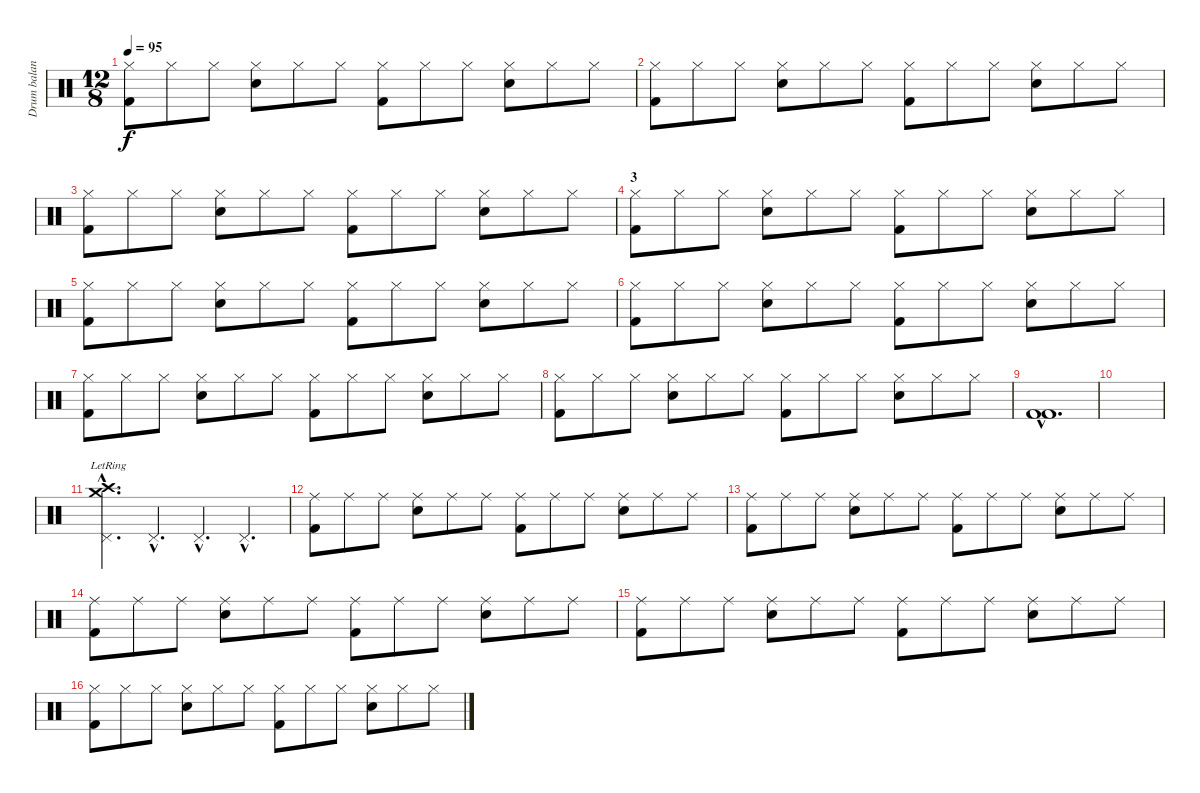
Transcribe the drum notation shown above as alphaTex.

\track ("Drum balance help" "Drum balan") {instrument percussion}
\staff {score}
\articulation defaults
\ts (12 8)
\tempo 95
\clef neutral
\ks c
("Kick (hit) 2" "Hi-Hat (closed)").8{dy f} "Hi-Hat (closed)".8 "Hi-Hat (closed)".8 ("Snare (hit) 2" "Hi-Hat (closed)").8 "Hi-Hat (closed)".8 "Hi-Hat (closed)".8 ("Kick (hit) 2" "Hi-Hat (closed)").8 "Hi-Hat (closed)".8 "Hi-Hat (closed)".8 ("Snare (hit) 2" "Hi-Hat (closed)").8 "Hi-Hat (closed)".8 "Hi-Hat (closed)".8 |
("Kick (hit) 2" "Hi-Hat (closed)").8 "Hi-Hat (closed)".8 "Hi-Hat (closed)".8 ("Snare (hit) 2" "Hi-Hat (closed)").8 "Hi-Hat (closed)".8 "Hi-Hat (closed)".8 ("Kick (hit) 2" "Hi-Hat (closed)").8 "Hi-Hat (closed)".8 "Hi-Hat (closed)".8 ("Snare (hit) 2" "Hi-Hat (closed)").8 "Hi-Hat (closed)".8 "Hi-Hat (closed)".8 |
("Kick (hit) 2" "Hi-Hat (closed)").8 "Hi-Hat (closed)".8 "Hi-Hat (closed)".8 ("Snare (hit) 2" "Hi-Hat (closed)").8 "Hi-Hat (closed)".8 "Hi-Hat (closed)".8 ("Kick (hit) 2" "Hi-Hat (closed)").8 "Hi-Hat (closed)".8 "Hi-Hat (closed)".8 ("Snare (hit) 2" "Hi-Hat (closed)").8 "Hi-Hat (closed)".8 "Hi-Hat (closed)".8 |
\section ("" "3")
("Kick (hit) 2" "Hi-Hat (closed)").8 "Hi-Hat (closed)".8 "Hi-Hat (closed)".8 ("Snare (hit) 2" "Hi-Hat (closed)").8 "Hi-Hat (closed)".8 "Hi-Hat (closed)".8 ("Kick (hit) 2" "Hi-Hat (closed)").8 "Hi-Hat (closed)".8 "Hi-Hat (closed)".8 ("Snare (hit) 2" "Hi-Hat (closed)").8 "Hi-Hat (closed)".8 "Hi-Hat (closed)".8 |
("Kick (hit) 2" "Hi-Hat (closed)").8 "Hi-Hat (closed)".8 "Hi-Hat (closed)".8 ("Snare (hit) 2" "Hi-Hat (closed)").8 "Hi-Hat (closed)".8 "Hi-Hat (closed)".8 ("Kick (hit) 2" "Hi-Hat (closed)").8 "Hi-Hat (closed)".8 "Hi-Hat (closed)".8 ("Snare (hit) 2" "Hi-Hat (closed)").8 "Hi-Hat (closed)".8 "Hi-Hat (closed)".8 |
("Kick (hit) 2" "Hi-Hat (closed)").8 "Hi-Hat (closed)".8 "Hi-Hat (closed)".8 ("Snare (hit) 2" "Hi-Hat (closed)").8 "Hi-Hat (closed)".8 "Hi-Hat (closed)".8 ("Kick (hit) 2" "Hi-Hat (closed)").8 "Hi-Hat (closed)".8 "Hi-Hat (closed)".8 ("Snare (hit) 2" "Hi-Hat (closed)").8 "Hi-Hat (closed)".8 "Hi-Hat (closed)".8 |
("Kick (hit) 2" "Hi-Hat (closed)").8 "Hi-Hat (closed)".8 "Hi-Hat (closed)".8 ("Snare (hit) 2" "Hi-Hat (closed)").8 "Hi-Hat (closed)".8 "Hi-Hat (closed)".8 ("Kick (hit) 2" "Hi-Hat (closed)").8 "Hi-Hat (closed)".8 "Hi-Hat (closed)".8 ("Snare (hit) 2" "Hi-Hat (closed)").8 "Hi-Hat (closed)".8 "Hi-Hat (closed)".8 |
("Kick (hit) 2" "Hi-Hat (closed)").8 "Hi-Hat (closed)".8 "Hi-Hat (closed)".8 ("Snare (hit) 2" "Hi-Hat (closed)").8 "Hi-Hat (closed)".8 "Hi-Hat (closed)".8 ("Kick (hit) 2" "Hi-Hat (closed)").8 "Hi-Hat (closed)".8 "Hi-Hat (closed)".8 ("Snare (hit) 2" "Hi-Hat (closed)").8 "Hi-Hat (closed)".8 "Hi-Hat (closed)".8 |
("Kick (hit) 2"{hac} "Kick (hit) 2"{hac}).1{d} |
|
("Pedal Hi-Hat (hit)"{hac} "Crash medium (hit)"{hac lr} "Crash high (hit)"{hac lr}).4{d} "Pedal Hi-Hat (hit)"{hac}.4{d} "Pedal Hi-Hat (hit)"{hac}.4{d} "Pedal Hi-Hat (hit)"{hac}.4{d} |
("Kick (hit) 2" "Ride (middle)").8 "Ride (middle)".8 "Ride (middle)".8 ("Snare (hit) 2" "Ride (middle)").8 "Ride (middle)".8 "Ride (middle)".8 ("Kick (hit) 2" "Ride (middle)").8 "Ride (middle)".8 "Ride (middle)".8 ("Snare (hit) 2" "Ride (middle)").8 "Ride (middle)".8 "Ride (middle)".8 |
("Kick (hit) 2" "Ride (middle)").8 "Ride (middle)".8 "Ride (middle)".8 ("Snare (hit) 2" "Ride (middle)").8 "Ride (middle)".8 "Ride (middle)".8 ("Kick (hit) 2" "Ride (middle)").8 "Ride (middle)".8 "Ride (middle)".8 ("Snare (hit) 2" "Ride (middle)").8 "Ride (middle)".8 "Ride (middle)".8 |
("Kick (hit) 2" "Ride (middle)").8 "Ride (middle)".8 "Ride (middle)".8 ("Snare (hit) 2" "Ride (middle)").8 "Ride (middle)".8 "Ride (middle)".8 ("Kick (hit) 2" "Ride (middle)").8 "Ride (middle)".8 "Ride (middle)".8 ("Snare (hit) 2" "Ride (middle)").8 "Ride (middle)".8 "Ride (middle)".8 |
("Kick (hit) 2" "Ride (middle)").8 "Ride (middle)".8 "Ride (middle)".8 ("Snare (hit) 2" "Ride (middle)").8 "Ride (middle)".8 "Ride (middle)".8 ("Kick (hit) 2" "Ride (middle)").8 "Ride (middle)".8 "Ride (middle)".8 ("Snare (hit) 2" "Ride (middle)").8 "Ride (middle)".8 "Ride (middle)".8 |
("Kick (hit) 2" "Hi-Hat (closed)").8 "Hi-Hat (closed)".8 "Hi-Hat (closed)".8 ("Snare (hit) 2" "Hi-Hat (closed)").8 "Hi-Hat (closed)".8 "Hi-Hat (closed)".8 ("Kick (hit) 2" "Hi-Hat (closed)").8 "Hi-Hat (closed)".8 "Hi-Hat (closed)".8 ("Snare (hit) 2" "Hi-Hat (closed)").8 "Hi-Hat (closed)".8 "Hi-Hat (closed)".8
